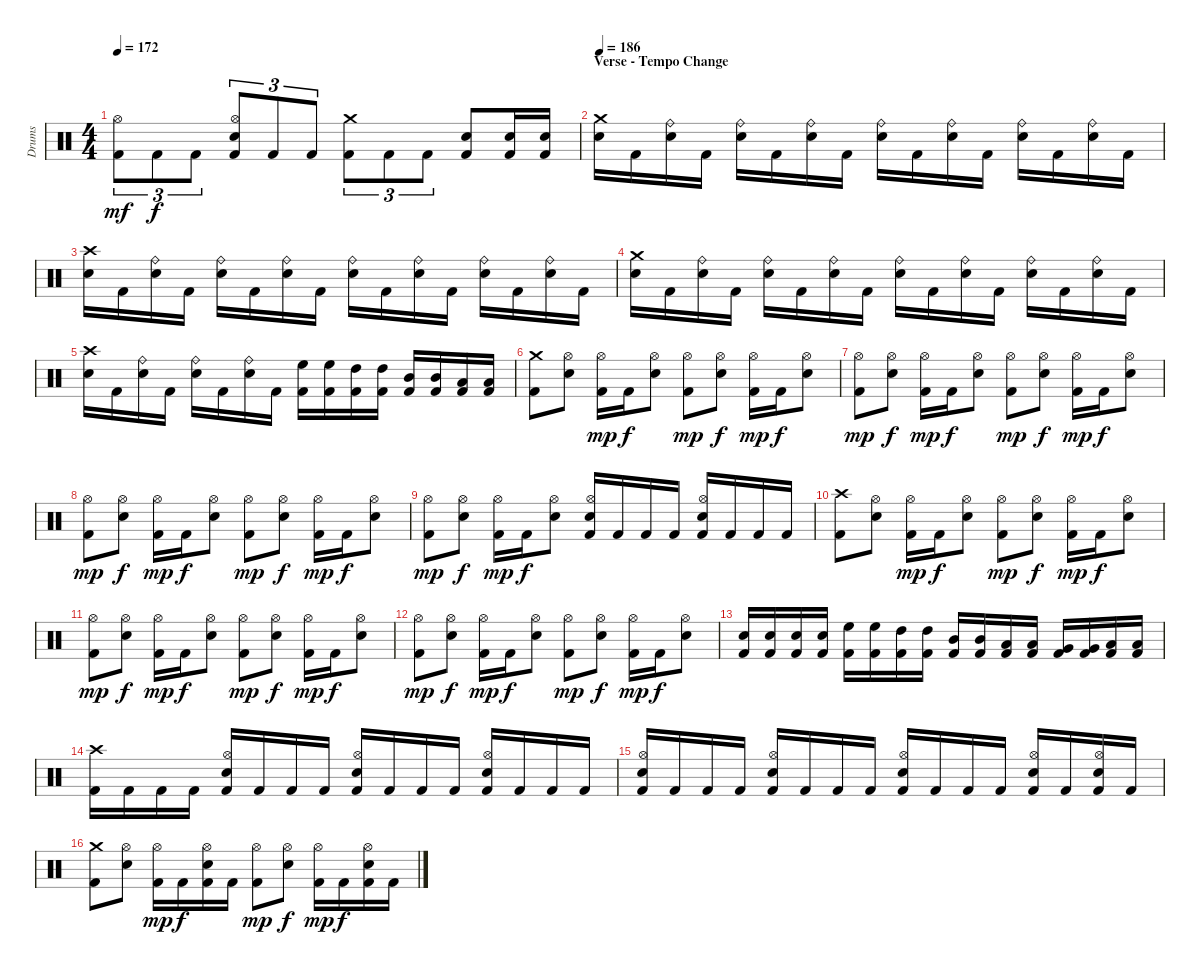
\track ("Drums" "Drums") {instrument percussion}
\staff {score}
\articulation defaults
\ts (4 4)
\tempo 172
\clef neutral
\ks c
("Kick (hit) 2" "Hi-Hat (open)").8{tu (3 2) dy mf} "Kick (hit) 2".8{tu (3 2) dy f} "Kick (hit) 2".8{tu (3 2)} ("Kick (hit) 2" "Snare (hit) 2" "Hi-Hat (open)").8{tu (3 2)} "Kick (hit) 2".8{tu (3 2)} "Kick (hit) 2".8{tu (3 2)} ("Kick (hit) 2" "Crash medium (hit)").8{tu (3 2)} "Kick (hit) 2".8{tu (3 2)} "Kick (hit) 2".8{tu (3 2)} ("Kick (hit) 2" "Snare (hit) 2").8 ("Kick (hit) 2" "Snare (hit) 2").16 ("Kick (hit) 2" "Snare (hit) 2").16 |
\section ("" "Verse - Tempo Change")
\tempo 186
("Snare (hit) 2" "Crash medium (hit)").16 "Kick (hit) 2".16 ("Snare (hit) 2" "Ride (bell)").16 "Kick (hit) 2".16 ("Snare (hit) 2" "Ride (bell)").16 "Kick (hit) 2".16 ("Snare (hit) 2" "Ride (bell)").16 "Kick (hit) 2".16 ("Snare (hit) 2" "Ride (bell)").16 "Kick (hit) 2".16 ("Snare (hit) 2" "Ride (bell)").16 "Kick (hit) 2".16 ("Snare (hit) 2" "Ride (bell)").16 "Kick (hit) 2".16 ("Snare (hit) 2" "Ride (bell)").16 "Kick (hit) 2".16 |
("Snare (hit) 2" "Crash high (hit)").16 "Kick (hit) 2".16 ("Snare (hit) 2" "Ride (bell)").16 "Kick (hit) 2".16 ("Snare (hit) 2" "Ride (bell)").16 "Kick (hit) 2".16 ("Snare (hit) 2" "Ride (bell)").16 "Kick (hit) 2".16 ("Snare (hit) 2" "Ride (bell)").16 "Kick (hit) 2".16 ("Snare (hit) 2" "Ride (bell)").16 "Kick (hit) 2".16 ("Snare (hit) 2" "Ride (bell)").16 "Kick (hit) 2".16 ("Snare (hit) 2" "Ride (bell)").16 "Kick (hit) 2".16 |
("Snare (hit) 2" "Crash medium (hit)").16 "Kick (hit) 2".16 ("Snare (hit) 2" "Ride (bell)").16 "Kick (hit) 2".16 ("Snare (hit) 2" "Ride (bell)").16 "Kick (hit) 2".16 ("Snare (hit) 2" "Ride (bell)").16 "Kick (hit) 2".16 ("Snare (hit) 2" "Ride (bell)").16 "Kick (hit) 2".16 ("Snare (hit) 2" "Ride (bell)").16 "Kick (hit) 2".16 ("Snare (hit) 2" "Ride (bell)").16 "Kick (hit) 2".16 ("Snare (hit) 2" "Ride (bell)").16 "Kick (hit) 2".16 |
("Snare (hit) 2" "Crash high (hit)").16 "Kick (hit) 2".16 ("Snare (hit) 2" "Ride (bell)").16 "Kick (hit) 2".16 ("Snare (hit) 2" "Ride (bell)").16 "Kick (hit) 2".16 ("Snare (hit) 2" "Ride (bell)").16 "Kick (hit) 2".16 ("Kick (hit) 2" "High Floor Tom (hit)").16 ("Kick (hit) 2" "High Floor Tom (hit)").16 ("Kick (hit) 2" "High Tom (hit)").16 ("Kick (hit) 2" "High Tom (hit)").16 ("Kick (hit) 2" "Mid Tom (hit)").16 ("Kick (hit) 2" "Mid Tom (hit)").16 ("Kick (hit) 2" "Low Tom (hit)").16 ("Kick (hit) 2" "Low Tom (hit)").16 |
("Kick (hit) 2" "Crash medium (hit)").8 ("Snare (hit) 2" "Hi-Hat (open)").8 ("Kick (hit) 2" "Hi-Hat (open)").16{dy mp} "Kick (hit) 2".16{dy f} ("Snare (hit) 2" "Hi-Hat (open)").8 ("Kick (hit) 2" "Hi-Hat (open)").8{dy mp} ("Snare (hit) 2" "Hi-Hat (open)").8{dy f} ("Kick (hit) 2" "Hi-Hat (open)").16{dy mp} "Kick (hit) 2".16{dy f} ("Snare (hit) 2" "Hi-Hat (open)").8 |
("Kick (hit) 2" "Hi-Hat (open)").8{dy mp} ("Snare (hit) 2" "Hi-Hat (open)").8{dy f} ("Kick (hit) 2" "Hi-Hat (open)").16{dy mp} "Kick (hit) 2".16{dy f} ("Snare (hit) 2" "Hi-Hat (open)").8 ("Kick (hit) 2" "Hi-Hat (open)").8{dy mp} ("Snare (hit) 2" "Hi-Hat (open)").8{dy f} ("Kick (hit) 2" "Hi-Hat (open)").16{dy mp} "Kick (hit) 2".16{dy f} ("Snare (hit) 2" "Hi-Hat (open)").8 |
("Kick (hit) 2" "Hi-Hat (open)").8{dy mp} ("Snare (hit) 2" "Hi-Hat (open)").8{dy f} ("Kick (hit) 2" "Hi-Hat (open)").16{dy mp} "Kick (hit) 2".16{dy f} ("Snare (hit) 2" "Hi-Hat (open)").8 ("Kick (hit) 2" "Hi-Hat (open)").8{dy mp} ("Snare (hit) 2" "Hi-Hat (open)").8{dy f} ("Kick (hit) 2" "Hi-Hat (open)").16{dy mp} "Kick (hit) 2".16{dy f} ("Snare (hit) 2" "Hi-Hat (open)").8 |
("Kick (hit) 2" "Hi-Hat (open)").8{dy mp} ("Snare (hit) 2" "Hi-Hat (open)").8{dy f} ("Kick (hit) 2" "Hi-Hat (open)").16{dy mp} "Kick (hit) 2".16{dy f} ("Snare (hit) 2" "Hi-Hat (open)").8 ("Kick (hit) 2" "Snare (hit) 2" "Hi-Hat (open)").16 "Kick (hit) 2".16 "Kick (hit) 2".16 "Kick (hit) 2".16 ("Kick (hit) 2" "Snare (hit) 2" "Hi-Hat (open)").16 "Kick (hit) 2".16 "Kick (hit) 2".16 "Kick (hit) 2".16 |
\section ("" "")
("Kick (hit) 2" "Crash high (hit)").8 ("Snare (hit) 2" "Hi-Hat (open)").8 ("Kick (hit) 2" "Hi-Hat (open)").16{dy mp} "Kick (hit) 2".16{dy f} ("Snare (hit) 2" "Hi-Hat (open)").8 ("Kick (hit) 2" "Hi-Hat (open)").8{dy mp} ("Snare (hit) 2" "Hi-Hat (open)").8{dy f} ("Kick (hit) 2" "Hi-Hat (open)").16{dy mp} "Kick (hit) 2".16{dy f} ("Snare (hit) 2" "Hi-Hat (open)").8 |
("Kick (hit) 2" "Hi-Hat (open)").8{dy mp} ("Snare (hit) 2" "Hi-Hat (open)").8{dy f} ("Kick (hit) 2" "Hi-Hat (open)").16{dy mp} "Kick (hit) 2".16{dy f} ("Snare (hit) 2" "Hi-Hat (open)").8 ("Kick (hit) 2" "Hi-Hat (open)").8{dy mp} ("Snare (hit) 2" "Hi-Hat (open)").8{dy f} ("Kick (hit) 2" "Hi-Hat (open)").16{dy mp} "Kick (hit) 2".16{dy f} ("Snare (hit) 2" "Hi-Hat (open)").8 |
("Kick (hit) 2" "Hi-Hat (open)").8{dy mp} ("Snare (hit) 2" "Hi-Hat (open)").8{dy f} ("Kick (hit) 2" "Hi-Hat (open)").16{dy mp} "Kick (hit) 2".16{dy f} ("Snare (hit) 2" "Hi-Hat (open)").8 ("Kick (hit) 2" "Hi-Hat (open)").8{dy mp} ("Snare (hit) 2" "Hi-Hat (open)").8{dy f} ("Kick (hit) 2" "Hi-Hat (open)").16{dy mp} "Kick (hit) 2".16{dy f} ("Snare (hit) 2" "Hi-Hat (open)").8 |
("Kick (hit) 2" "Snare (hit) 2").16 ("Kick (hit) 2" "Snare (hit) 2").16 ("Kick (hit) 2" "Snare (hit) 2").16 ("Kick (hit) 2" "Snare (hit) 2").16 ("Kick (hit) 2" "High Floor Tom (hit)").16 ("Kick (hit) 2" "High Floor Tom (hit)").16 ("Kick (hit) 2" "High Tom (hit)").16 ("Kick (hit) 2" "High Tom (hit)").16 ("Kick (hit) 2" "Mid Tom (hit)").16 ("Kick (hit) 2" "Mid Tom (hit)").16 ("Kick (hit) 2" "Low Tom (hit)").16 ("Kick (hit) 2" "Low Tom (hit)").16 ("Kick (hit) 2" "Very Low Tom (hit)").16 ("Kick (hit) 2" "Very Low Tom (hit)").16 ("Kick (hit) 2" "Low Floor Tom (hit)").16 ("Kick (hit) 2" "Low Floor Tom (hit)").16 |
\section ("" "")
("Kick (hit) 2" "Crash high (hit)").16 "Kick (hit) 2".16 "Kick (hit) 2".16 "Kick (hit) 2".16 ("Kick (hit) 2" "Snare (hit) 2" "Hi-Hat (open)").16 "Kick (hit) 2".16 "Kick (hit) 2".16 "Kick (hit) 2".16 ("Kick (hit) 2" "Snare (hit) 2" "Hi-Hat (open)").16 "Kick (hit) 2".16 "Kick (hit) 2".16 "Kick (hit) 2".16 ("Kick (hit) 2" "Snare (hit) 2" "Hi-Hat (open)").16 "Kick (hit) 2".16 "Kick (hit) 2".16 "Kick (hit) 2".16 |
("Kick (hit) 2" "Snare (hit) 2" "Hi-Hat (open)").16 "Kick (hit) 2".16 "Kick (hit) 2".16 "Kick (hit) 2".16 ("Kick (hit) 2" "Snare (hit) 2" "Hi-Hat (open)").16 "Kick (hit) 2".16 "Kick (hit) 2".16 "Kick (hit) 2".16 ("Kick (hit) 2" "Snare (hit) 2" "Hi-Hat (open)").16 "Kick (hit) 2".16 "Kick (hit) 2".16 "Kick (hit) 2".16 ("Kick (hit) 2" "Snare (hit) 2" "Hi-Hat (open)").16 "Kick (hit) 2".16 ("Kick (hit) 2" "Snare (hit) 2" "Hi-Hat (open)").16 "Kick (hit) 2".16 |
("Kick (hit) 2" "Crash medium (hit)").8 ("Snare (hit) 2" "Hi-Hat (open)").8 ("Kick (hit) 2" "Hi-Hat (open)").16{dy mp} "Kick (hit) 2".16{dy f} ("Kick (hit) 2" "Snare (hit) 2" "Hi-Hat (open)").16 "Kick (hit) 2".16 ("Kick (hit) 2" "Hi-Hat (open)").8{dy mp} ("Snare (hit) 2" "Hi-Hat (open)").8{dy f} ("Kick (hit) 2" "Hi-Hat (open)").16{dy mp} "Kick (hit) 2".16{dy f} ("Kick (hit) 2" "Snare (hit) 2" "Hi-Hat (open)").16 "Kick (hit) 2".16
